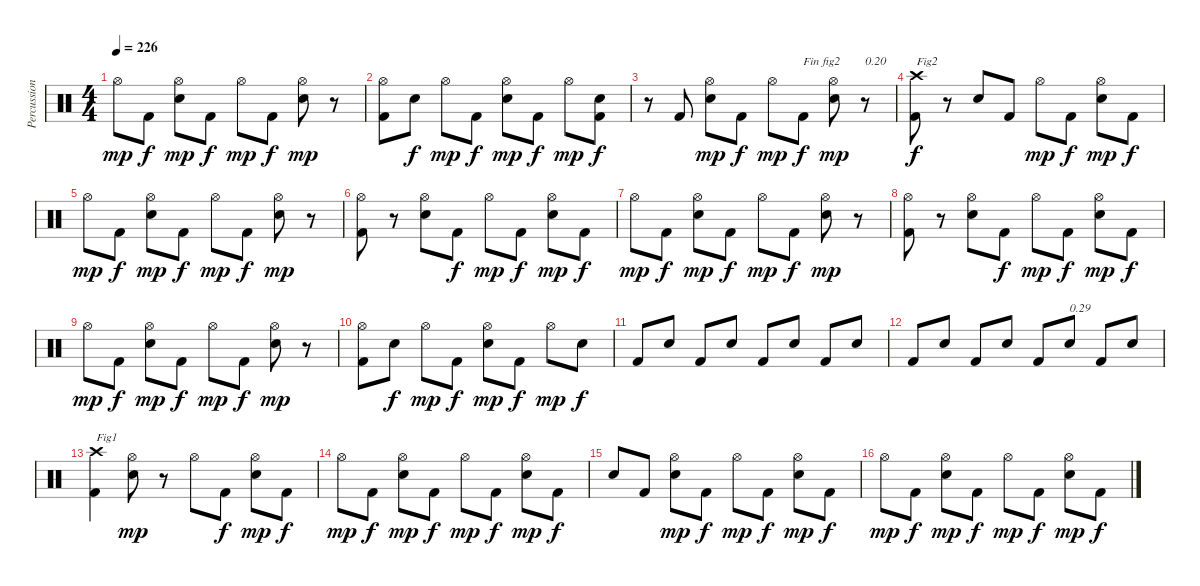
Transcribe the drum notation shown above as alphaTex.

\track ("Percussions" "Percussion") {instrument percussion}
\staff {score}
\articulation defaults
\ts (4 4)
\tempo 226
\clef neutral
\ks c "Hi-Hat (open)".8{dy mp} "Kick (hit) 2".8{dy f}
("Electric Snare (hit)" "Hi-Hat (open)").8{dy mp} "Kick (hit) 2".8{dy f} "Hi-Hat (open)".8{dy mp} "Kick (hit) 2".8{dy f} ("Electric Snare (hit)" "Hi-Hat (open)").8{dy mp} r.8 |
("Kick (hit) 2" "Hi-Hat (open)").8 "Electric Snare (hit)".8{dy f} "Hi-Hat (open)".8{dy mp} "Kick (hit) 2".8{dy f} ("Electric Snare (hit)" "Hi-Hat (open)").8{dy mp} "Kick (hit) 2".8{dy f} "Hi-Hat (open)".8{dy mp} ("Kick (hit) 2" "Electric Snare (hit)").8{dy f} |
r.8 "Kick (hit) 2".8 ("Electric Snare (hit)" "Hi-Hat (open)").8{dy mp} "Kick (hit) 2".8{dy f} "Hi-Hat (open)".8{dy mp} "Kick (hit) 2".8{txt "Fin fig2" dy f} ("Electric Snare (hit)" "Hi-Hat (open)").8{dy mp} r.8{txt "0.20"} |
("Kick (hit) 2" "Crash high (hit)").8{txt "Fig2" dy f} r.8 "Electric Snare (hit)".8 "Kick (hit) 2".8 "Hi-Hat (open)".8{dy mp} "Kick (hit) 2".8{dy f} ("Electric Snare (hit)" "Hi-Hat (open)").8{dy mp} "Kick (hit) 2".8{dy f} |
"Hi-Hat (open)".8{dy mp} "Kick (hit) 2".8{dy f} ("Electric Snare (hit)" "Hi-Hat (open)").8{dy mp} "Kick (hit) 2".8{dy f} "Hi-Hat (open)".8{dy mp} "Kick (hit) 2".8{dy f} ("Electric Snare (hit)" "Hi-Hat (open)").8{dy mp} r.8 |
("Kick (hit) 2" "Hi-Hat (open)").8 r.8 ("Electric Snare (hit)" "Hi-Hat (open)").8 "Kick (hit) 2".8{dy f} "Hi-Hat (open)".8{dy mp} "Kick (hit) 2".8{dy f} ("Electric Snare (hit)" "Hi-Hat (open)").8{dy mp} "Kick (hit) 2".8{dy f} |
"Hi-Hat (open)".8{dy mp} "Kick (hit) 2".8{dy f} ("Electric Snare (hit)" "Hi-Hat (open)").8{dy mp} "Kick (hit) 2".8{dy f} "Hi-Hat (open)".8{dy mp} "Kick (hit) 2".8{dy f} ("Electric Snare (hit)" "Hi-Hat (open)").8{dy mp} r.8 |
("Kick (hit) 2" "Hi-Hat (open)").8 r.8 ("Electric Snare (hit)" "Hi-Hat (open)").8 "Kick (hit) 2".8{dy f} "Hi-Hat (open)".8{dy mp} "Kick (hit) 2".8{dy f} ("Electric Snare (hit)" "Hi-Hat (open)").8{dy mp} "Kick (hit) 2".8{dy f} |
"Hi-Hat (open)".8{dy mp} "Kick (hit) 2".8{dy f} ("Electric Snare (hit)" "Hi-Hat (open)").8{dy mp} "Kick (hit) 2".8{dy f} "Hi-Hat (open)".8{dy mp} "Kick (hit) 2".8{dy f} ("Electric Snare (hit)" "Hi-Hat (open)").8{dy mp} r.8 |
("Kick (hit) 2" "Hi-Hat (open)").8 "Electric Snare (hit)".8{dy f} "Hi-Hat (open)".8{dy mp} "Kick (hit) 2".8{dy f} ("Electric Snare (hit)" "Hi-Hat (open)").8{dy mp} "Kick (hit) 2".8{dy f} "Hi-Hat (open)".8{dy mp} "Electric Snare (hit)".8{dy f} |
"Kick (hit) 2".8 "Electric Snare (hit)".8 "Kick (hit) 2".8 "Electric Snare (hit)".8 "Kick (hit) 2".8 "Electric Snare (hit)".8 "Kick (hit) 2".8 "Electric Snare (hit)".8 |
"Kick (hit) 2".8 "Electric Snare (hit)".8 "Kick (hit) 2".8 "Electric Snare (hit)".8 "Kick (hit) 2".8 "Electric Snare (hit)".8{txt "0.29"} "Kick (hit) 2".8 "Electric Snare (hit)".8 |
("Kick (hit) 2" "Crash high (hit)").4{txt "Fig1 "} ("Electric Snare (hit)" "Hi-Hat (open)").8{dy mp} r.8 "Hi-Hat (open)".8 "Kick (hit) 2".8{dy f} ("Electric Snare (hit)" "Hi-Hat (open)").8{dy mp} "Kick (hit) 2".8{dy f} |
"Hi-Hat (open)".8{dy mp} "Kick (hit) 2".8{dy f} ("Electric Snare (hit)" "Hi-Hat (open)").8{dy mp} "Kick (hit) 2".8{dy f} "Hi-Hat (open)".8{dy mp} "Kick (hit) 2".8{dy f} ("Electric Snare (hit)" "Hi-Hat (open)").8{dy mp} "Kick (hit) 2".8{dy f} |
"Electric Snare (hit)".8 "Kick (hit) 2".8 ("Electric Snare (hit)" "Hi-Hat (open)").8{dy mp} "Kick (hit) 2".8{dy f} "Hi-Hat (open)".8{dy mp} "Kick (hit) 2".8{dy f} ("Electric Snare (hit)" "Hi-Hat (open)").8{dy mp} "Kick (hit) 2".8{dy f} |
"Hi-Hat (open)".8{dy mp} "Kick (hit) 2".8{dy f} ("Electric Snare (hit)" "Hi-Hat (open)").8{dy mp} "Kick (hit) 2".8{dy f} "Hi-Hat (open)".8{dy mp} "Kick (hit) 2".8{dy f} ("Electric Snare (hit)" "Hi-Hat (open)").8{dy mp} "Kick (hit) 2".8{dy f}
